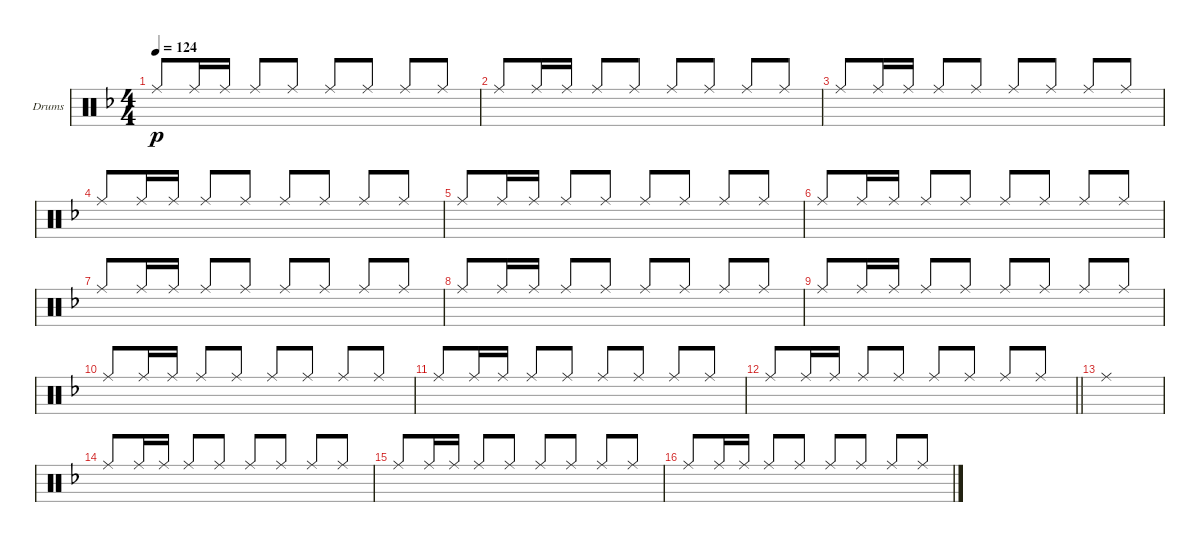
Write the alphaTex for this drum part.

\bracketExtendMode groupsimilarinstruments
\firstSystemTrackNameOrientation horizontal
\otherSystemsTrackNameOrientation horizontal
\track ("Ride Cymbal" "Drums") {instrument percussion}
\staff {score}
\articulation defaults
\ts (4 4)
\tempo 124
\clef neutral
\scale
0.333333
\ks dminor "Ride (middle)".8{dy p beam invert} "Ride (middle)".16 "Ride (middle)".16 "Ride (middle)".8{beam invert} "Ride (middle)".8 "Ride (middle)".8{beam invert} "Ride (middle)".8 "Ride (middle)".8{beam invert} "Ride (middle)".8
|
\scale
0.333333 "Ride (middle)".8{beam invert} "Ride (middle)".16 "Ride (middle)".16 "Ride (middle)".8{beam invert} "Ride (middle)".8 "Ride (middle)".8{beam invert} "Ride (middle)".8 "Ride (middle)".8{beam invert} "Ride (middle)".8 |
\scale
0.333333 "Ride (middle)".8{beam invert} "Ride (middle)".16 "Ride (middle)".16 "Ride (middle)".8{beam invert} "Ride (middle)".8 "Ride (middle)".8{beam invert} "Ride (middle)".8 "Ride (middle)".8{beam invert} "Ride (middle)".8 |
\scale
0.333333 "Ride (middle)".8{beam invert} "Ride (middle)".16 "Ride (middle)".16 "Ride (middle)".8{beam invert} "Ride (middle)".8 "Ride (middle)".8{beam invert} "Ride (middle)".8 "Ride (middle)".8{beam invert} "Ride (middle)".8 |
\scale
0.333333 "Ride (middle)".8{beam invert} "Ride (middle)".16 "Ride (middle)".16 "Ride (middle)".8{beam invert} "Ride (middle)".8 "Ride (middle)".8{beam invert} "Ride (middle)".8 "Ride (middle)".8{beam invert} "Ride (middle)".8 |
\scale
0.333333 "Ride (middle)".8{beam invert} "Ride (middle)".16 "Ride (middle)".16 "Ride (middle)".8{beam invert} "Ride (middle)".8 "Ride (middle)".8{beam invert} "Ride (middle)".8 "Ride (middle)".8{beam invert} "Ride (middle)".8 |
\scale
0.333333 "Ride (middle)".8{beam invert} "Ride (middle)".16 "Ride (middle)".16 "Ride (middle)".8{beam invert} "Ride (middle)".8 "Ride (middle)".8{beam invert} "Ride (middle)".8 "Ride (middle)".8{beam invert} "Ride (middle)".8 |
\scale
0.333333 "Ride (middle)".8{beam invert} "Ride (middle)".16 "Ride (middle)".16 "Ride (middle)".8{beam invert} "Ride (middle)".8 "Ride (middle)".8{beam invert} "Ride (middle)".8 "Ride (middle)".8{beam invert} "Ride (middle)".8 |
\scale
0.333333 "Ride (middle)".8{beam invert} "Ride (middle)".16 "Ride (middle)".16 "Ride (middle)".8{beam invert} "Ride (middle)".8 "Ride (middle)".8{beam invert} "Ride (middle)".8 "Ride (middle)".8{beam invert} "Ride (middle)".8 |
\scale
0.333333 "Ride (middle)".8{beam invert} "Ride (middle)".16 "Ride (middle)".16 "Ride (middle)".8{beam invert} "Ride (middle)".8 "Ride (middle)".8{beam invert} "Ride (middle)".8 "Ride (middle)".8{beam invert} "Ride (middle)".8 |
\scale
0.333333 "Ride (middle)".8{beam invert} "Ride (middle)".16 "Ride (middle)".16 "Ride (middle)".8{beam invert} "Ride (middle)".8 "Ride (middle)".8{beam invert} "Ride (middle)".8 "Ride (middle)".8{beam invert} "Ride (middle)".8 |
\scale
0.333333
\barLineRight lightlight "Ride (middle)".8{beam invert} "Ride (middle)".16 "Ride (middle)".16 "Ride (middle)".8{beam invert} "Ride (middle)".8 "Ride (middle)".8{beam invert} "Ride (middle)".8 "Ride (middle)".8{beam invert} "Ride (middle)".8
|
\scale
0.333333 "Ride (middle)".1 |
\scale
0.333333 "Ride (middle)".8{beam invert} "Ride (middle)".16 "Ride (middle)".16 "Ride (middle)".8{beam invert} "Ride (middle)".8 "Ride (middle)".8{beam invert} "Ride (middle)".8 "Ride (middle)".8{beam invert} "Ride (middle)".8 |
\scale
0.333333 "Ride (middle)".8{beam invert} "Ride (middle)".16 "Ride (middle)".16 "Ride (middle)".8{beam invert} "Ride (middle)".8 "Ride (middle)".8{beam invert} "Ride (middle)".8 "Ride (middle)".8{beam invert} "Ride (middle)".8 |
\scale
0.333333 "Ride (middle)".8{beam invert} "Ride (middle)".16 "Ride (middle)".16 "Ride (middle)".8{beam invert} "Ride (middle)".8 "Ride (middle)".8{beam invert} "Ride (middle)".8 "Ride (middle)".8{beam invert} "Ride (middle)".8
